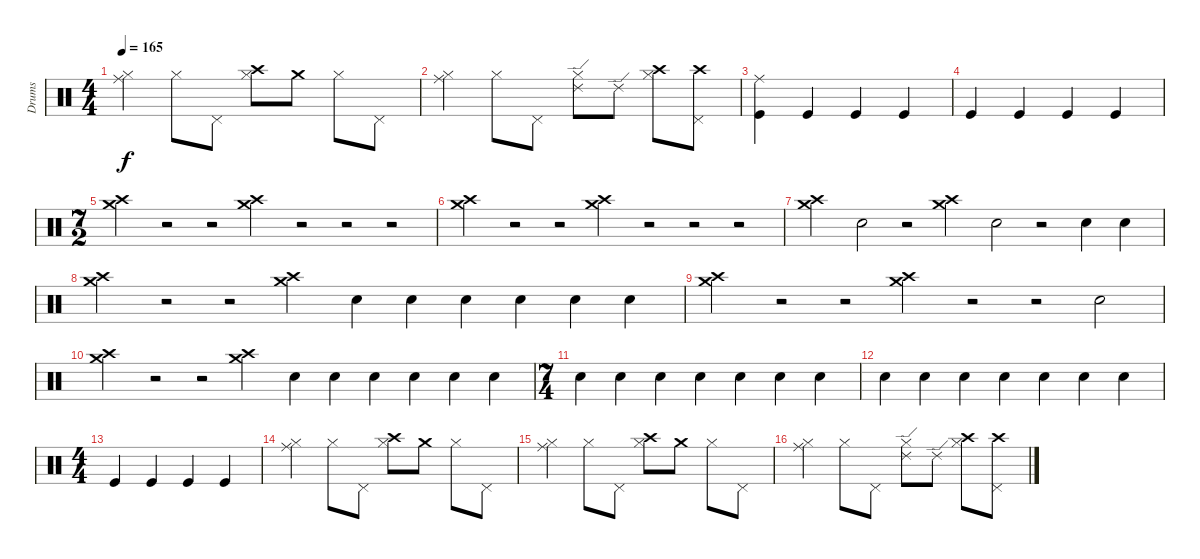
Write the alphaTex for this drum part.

\track ("Drums" "Drums") {instrument percussion}
\staff {score}
\articulation defaults
\ts (4 4)
\tempo 165
\clef neutral
\ks c
("Hi-Hat (closed)" "Ride (middle)").4{dy f} "Hi-Hat (closed)".8 "Pedal Hi-Hat (hit)".8 ("Hi-Hat (closed)" "Crash high (hit)").8 "Crash medium (hit)".8 "Hi-Hat (closed)".8 "Pedal Hi-Hat (hit)".8 |
("Hi-Hat (closed)" "Ride (middle)").4 "Hi-Hat (closed)".8 "Pedal Hi-Hat (hit)".8 ("Hi-Hat (closed)" "Ride (edge) 2").8 "Ride (edge) 2".8 ("Hi-Hat (closed)" "Crash high (hit)").8 ("Pedal Hi-Hat (hit)" "Crash high (hit)").8 |
("Ride (middle)" "Kick (hit)").4 "Kick (hit)".4 "Kick (hit)".4 "Kick (hit)".4 |
"Kick (hit)".4 "Kick (hit)".4 "Kick (hit)".4 "Kick (hit)".4 |
\ts (7 2)
("Crash high (hit)" "Crash medium (hit)").2 r.2 r.2 ("Crash high (hit)" "Crash medium (hit)").2 r.2 r.2 r.2 |
("Crash high (hit)" "Crash medium (hit)").2 r.2 r.2 ("Crash high (hit)" "Crash medium (hit)").2 r.2 r.2 r.2 |
("Crash high (hit)" "Crash medium (hit)").2 "Snare (hit) 2".2 r.2 ("Crash high (hit)" "Crash medium (hit)").2 "Snare (hit) 2".2 r.2 "Snare (hit) 2".4 "Snare (hit) 2".4 |
("Crash high (hit)" "Crash medium (hit)").2 r.2 r.2 ("Crash high (hit)" "Crash medium (hit)").2 "Snare (hit) 2".4 "Snare (hit) 2".4 "Snare (hit) 2".4 "Snare (hit) 2".4 "Snare (hit) 2".4 "Snare (hit) 2".4 |
("Crash high (hit)" "Crash medium (hit)").2 r.2 r.2 ("Crash high (hit)" "Crash medium (hit)").2 r.2 r.2 "Snare (hit) 2".2 |
("Crash high (hit)" "Crash medium (hit)").2 r.2 r.2 ("Crash high (hit)" "Crash medium (hit)").2 "Snare (hit) 2".4 "Snare (hit) 2".4 "Snare (hit) 2".4 "Snare (hit) 2".4 "Snare (hit) 2".4 "Snare (hit) 2".4 |
\ts (7 4)
"Snare (hit) 2".4 "Snare (hit) 2".4 "Snare (hit) 2".4 "Snare (hit) 2".4 "Snare (hit) 2".4 "Snare (hit) 2".4 "Snare (hit) 2".4 |
"Snare (hit) 2".4 "Snare (hit) 2".4 "Snare (hit) 2".4 "Snare (hit) 2".4 "Snare (hit) 2".4 "Snare (hit) 2".4 "Snare (hit) 2".4 |
\ts (4 4)
"Kick (hit)".4 "Kick (hit)".4 "Kick (hit)".4 "Kick (hit)".4 |
("Hi-Hat (closed)" "Ride (middle)").4 "Hi-Hat (closed)".8 "Pedal Hi-Hat (hit)".8 ("Hi-Hat (closed)" "Crash high (hit)").8 "Crash medium (hit)".8 "Hi-Hat (closed)".8 "Pedal Hi-Hat (hit)".8 |
("Hi-Hat (closed)" "Ride (middle)").4 "Hi-Hat (closed)".8 "Pedal Hi-Hat (hit)".8 ("Hi-Hat (closed)" "Crash high (hit)").8 "Crash medium (hit)".8 "Hi-Hat (closed)".8 "Pedal Hi-Hat (hit)".8 |
("Hi-Hat (closed)" "Ride (middle)").4 "Hi-Hat (closed)".8 "Pedal Hi-Hat (hit)".8 ("Hi-Hat (closed)" "Ride (edge) 2").8 "Ride (edge) 2".8 ("Hi-Hat (closed)" "Crash high (hit)").8 ("Pedal Hi-Hat (hit)" "Crash high (hit)").8
